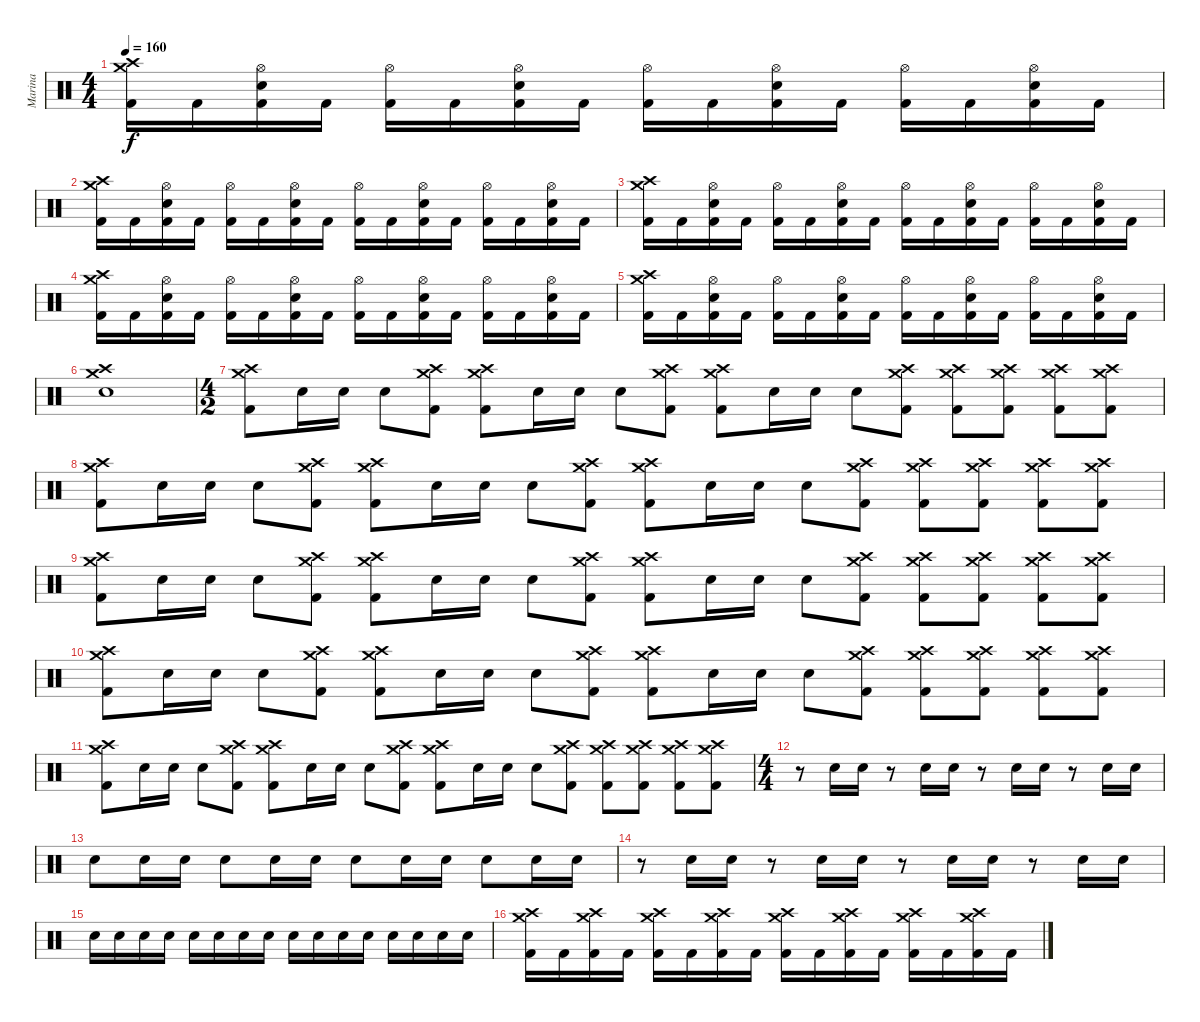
\track ("Marina" "Marina") {instrument percussion}
\staff {score}
\articulation defaults
\ts (4 4)
\tempo 160
\clef neutral
\ks c
("Kick (hit) 2" "Crash high (hit)" "Crash medium (hit)").16{dy f} "Kick (hit) 2".16 ("Kick (hit) 2" "Electric Snare (hit)" "Hi-Hat (open)").16 "Kick (hit) 2".16 ("Kick (hit) 2" "Hi-Hat (open)").16 "Kick (hit) 2".16 ("Kick (hit) 2" "Electric Snare (hit)" "Hi-Hat (open)").16 "Kick (hit) 2".16 ("Kick (hit) 2" "Hi-Hat (open)").16 "Kick (hit) 2".16 ("Kick (hit) 2" "Electric Snare (hit)" "Hi-Hat (open)").16 "Kick (hit) 2".16 ("Kick (hit) 2" "Hi-Hat (open)").16 "Kick (hit) 2".16 ("Kick (hit) 2" "Electric Snare (hit)" "Hi-Hat (open)").16 "Kick (hit) 2".16 |
("Kick (hit) 2" "Crash high (hit)" "Crash medium (hit)").16 "Kick (hit) 2".16 ("Kick (hit) 2" "Electric Snare (hit)" "Hi-Hat (open)").16 "Kick (hit) 2".16 ("Kick (hit) 2" "Hi-Hat (open)").16 "Kick (hit) 2".16 ("Kick (hit) 2" "Electric Snare (hit)" "Hi-Hat (open)").16 "Kick (hit) 2".16 ("Kick (hit) 2" "Hi-Hat (open)").16 "Kick (hit) 2".16 ("Kick (hit) 2" "Electric Snare (hit)" "Hi-Hat (open)").16 "Kick (hit) 2".16 ("Kick (hit) 2" "Hi-Hat (open)").16 "Kick (hit) 2".16 ("Kick (hit) 2" "Electric Snare (hit)" "Hi-Hat (open)").16 "Kick (hit) 2".16 |
("Kick (hit) 2" "Crash high (hit)" "Crash medium (hit)").16 "Kick (hit) 2".16 ("Kick (hit) 2" "Electric Snare (hit)" "Hi-Hat (open)").16 "Kick (hit) 2".16 ("Kick (hit) 2" "Hi-Hat (open)").16 "Kick (hit) 2".16 ("Kick (hit) 2" "Electric Snare (hit)" "Hi-Hat (open)").16 "Kick (hit) 2".16 ("Kick (hit) 2" "Hi-Hat (open)").16 "Kick (hit) 2".16 ("Kick (hit) 2" "Electric Snare (hit)" "Hi-Hat (open)").16 "Kick (hit) 2".16 ("Kick (hit) 2" "Hi-Hat (open)").16 "Kick (hit) 2".16 ("Kick (hit) 2" "Electric Snare (hit)" "Hi-Hat (open)").16 "Kick (hit) 2".16 |
("Kick (hit) 2" "Crash high (hit)" "Crash medium (hit)").16 "Kick (hit) 2".16 ("Kick (hit) 2" "Electric Snare (hit)" "Hi-Hat (open)").16 "Kick (hit) 2".16 ("Kick (hit) 2" "Hi-Hat (open)").16 "Kick (hit) 2".16 ("Kick (hit) 2" "Electric Snare (hit)" "Hi-Hat (open)").16 "Kick (hit) 2".16 ("Kick (hit) 2" "Hi-Hat (open)").16 "Kick (hit) 2".16 ("Kick (hit) 2" "Electric Snare (hit)" "Hi-Hat (open)").16 "Kick (hit) 2".16 ("Kick (hit) 2" "Hi-Hat (open)").16 "Kick (hit) 2".16 ("Kick (hit) 2" "Electric Snare (hit)" "Hi-Hat (open)").16 "Kick (hit) 2".16 |
("Kick (hit) 2" "Crash high (hit)" "Crash medium (hit)").16 "Kick (hit) 2".16 ("Kick (hit) 2" "Electric Snare (hit)" "Hi-Hat (open)").16 "Kick (hit) 2".16 ("Kick (hit) 2" "Hi-Hat (open)").16 "Kick (hit) 2".16 ("Kick (hit) 2" "Electric Snare (hit)" "Hi-Hat (open)").16 "Kick (hit) 2".16 ("Kick (hit) 2" "Hi-Hat (open)").16 "Kick (hit) 2".16 ("Kick (hit) 2" "Electric Snare (hit)" "Hi-Hat (open)").16 "Kick (hit) 2".16 ("Kick (hit) 2" "Hi-Hat (open)").16 "Kick (hit) 2".16 ("Kick (hit) 2" "Electric Snare (hit)" "Hi-Hat (open)").16 "Kick (hit) 2".16 |
("Electric Snare (hit)" "Crash high (hit)" "Crash medium (hit)").1 |
\ts (4 2)
("Kick (hit) 2" "Crash high (hit)" "Crash medium (hit)").8 "Electric Snare (hit)".16 "Electric Snare (hit)".16 "Electric Snare (hit)".8 ("Kick (hit) 2" "Crash high (hit)" "Crash medium (hit)").8 ("Kick (hit) 2" "Crash high (hit)" "Crash medium (hit)").8 "Electric Snare (hit)".16 "Electric Snare (hit)".16 "Electric Snare (hit)".8 ("Kick (hit) 2" "Crash high (hit)" "Crash medium (hit)").8 ("Kick (hit) 2" "Crash high (hit)" "Crash medium (hit)").8 "Electric Snare (hit)".16 "Electric Snare (hit)".16 "Electric Snare (hit)".8 ("Kick (hit) 2" "Crash high (hit)" "Crash medium (hit)").8 ("Kick (hit) 2" "Crash high (hit)" "Crash medium (hit)").8 ("Kick (hit) 2" "Crash high (hit)" "Crash medium (hit)").8 ("Kick (hit) 2" "Crash high (hit)" "Crash medium (hit)").8 ("Kick (hit) 2" "Crash high (hit)" "Crash medium (hit)").8 |
("Kick (hit) 2" "Crash high (hit)" "Crash medium (hit)").8 "Electric Snare (hit)".16 "Electric Snare (hit)".16 "Electric Snare (hit)".8 ("Kick (hit) 2" "Crash high (hit)" "Crash medium (hit)").8 ("Kick (hit) 2" "Crash high (hit)" "Crash medium (hit)").8 "Electric Snare (hit)".16 "Electric Snare (hit)".16 "Electric Snare (hit)".8 ("Kick (hit) 2" "Crash high (hit)" "Crash medium (hit)").8 ("Kick (hit) 2" "Crash high (hit)" "Crash medium (hit)").8 "Electric Snare (hit)".16 "Electric Snare (hit)".16 "Electric Snare (hit)".8 ("Kick (hit) 2" "Crash high (hit)" "Crash medium (hit)").8 ("Kick (hit) 2" "Crash high (hit)" "Crash medium (hit)").8 ("Kick (hit) 2" "Crash high (hit)" "Crash medium (hit)").8 ("Kick (hit) 2" "Crash high (hit)" "Crash medium (hit)").8 ("Kick (hit) 2" "Crash high (hit)" "Crash medium (hit)").8 |
("Kick (hit) 2" "Crash high (hit)" "Crash medium (hit)").8 "Electric Snare (hit)".16 "Electric Snare (hit)".16 "Electric Snare (hit)".8 ("Kick (hit) 2" "Crash high (hit)" "Crash medium (hit)").8 ("Kick (hit) 2" "Crash high (hit)" "Crash medium (hit)").8 "Electric Snare (hit)".16 "Electric Snare (hit)".16 "Electric Snare (hit)".8 ("Kick (hit) 2" "Crash high (hit)" "Crash medium (hit)").8 ("Kick (hit) 2" "Crash high (hit)" "Crash medium (hit)").8 "Electric Snare (hit)".16 "Electric Snare (hit)".16 "Electric Snare (hit)".8 ("Kick (hit) 2" "Crash high (hit)" "Crash medium (hit)").8 ("Kick (hit) 2" "Crash high (hit)" "Crash medium (hit)").8 ("Kick (hit) 2" "Crash high (hit)" "Crash medium (hit)").8 ("Kick (hit) 2" "Crash high (hit)" "Crash medium (hit)").8 ("Kick (hit) 2" "Crash high (hit)" "Crash medium (hit)").8 |
("Kick (hit) 2" "Crash high (hit)" "Crash medium (hit)").8 "Electric Snare (hit)".16 "Electric Snare (hit)".16 "Electric Snare (hit)".8 ("Kick (hit) 2" "Crash high (hit)" "Crash medium (hit)").8 ("Kick (hit) 2" "Crash high (hit)" "Crash medium (hit)").8 "Electric Snare (hit)".16 "Electric Snare (hit)".16 "Electric Snare (hit)".8 ("Kick (hit) 2" "Crash high (hit)" "Crash medium (hit)").8 ("Kick (hit) 2" "Crash high (hit)" "Crash medium (hit)").8 "Electric Snare (hit)".16 "Electric Snare (hit)".16 "Electric Snare (hit)".8 ("Kick (hit) 2" "Crash high (hit)" "Crash medium (hit)").8 ("Kick (hit) 2" "Crash high (hit)" "Crash medium (hit)").8 ("Kick (hit) 2" "Crash high (hit)" "Crash medium (hit)").8 ("Kick (hit) 2" "Crash high (hit)" "Crash medium (hit)").8 ("Kick (hit) 2" "Crash high (hit)" "Crash medium (hit)").8 |
("Kick (hit) 2" "Crash high (hit)" "Crash medium (hit)").8 "Electric Snare (hit)".16 "Electric Snare (hit)".16 "Electric Snare (hit)".8 ("Kick (hit) 2" "Crash high (hit)" "Crash medium (hit)").8 ("Kick (hit) 2" "Crash high (hit)" "Crash medium (hit)").8 "Electric Snare (hit)".16 "Electric Snare (hit)".16 "Electric Snare (hit)".8 ("Kick (hit) 2" "Crash high (hit)" "Crash medium (hit)").8 ("Kick (hit) 2" "Crash high (hit)" "Crash medium (hit)").8 "Electric Snare (hit)".16 "Electric Snare (hit)".16 "Electric Snare (hit)".8 ("Kick (hit) 2" "Crash high (hit)" "Crash medium (hit)").8 ("Kick (hit) 2" "Crash high (hit)" "Crash medium (hit)").8 ("Kick (hit) 2" "Crash high (hit)" "Crash medium (hit)").8 ("Kick (hit) 2" "Crash high (hit)" "Crash medium (hit)").8 ("Kick (hit) 2" "Crash high (hit)" "Crash medium (hit)").8 |
\ts (4 4)
r.8 "Electric Snare (hit)".16 "Electric Snare (hit)".16 r.8 "Electric Snare (hit)".16 "Electric Snare (hit)".16 r.8 "Electric Snare (hit)".16 "Electric Snare (hit)".16 r.8 "Electric Snare (hit)".16 "Electric Snare (hit)".16 |
"Electric Snare (hit)".8 "Electric Snare (hit)".16 "Electric Snare (hit)".16 "Electric Snare (hit)".8 "Electric Snare (hit)".16 "Electric Snare (hit)".16 "Electric Snare (hit)".8 "Electric Snare (hit)".16 "Electric Snare (hit)".16 "Electric Snare (hit)".8 "Electric Snare (hit)".16 "Electric Snare (hit)".16 |
r.8 "Electric Snare (hit)".16 "Electric Snare (hit)".16 r.8 "Electric Snare (hit)".16 "Electric Snare (hit)".16 r.8 "Electric Snare (hit)".16 "Electric Snare (hit)".16 r.8 "Electric Snare (hit)".16 "Electric Snare (hit)".16 |
"Electric Snare (hit)".16 "Electric Snare (hit)".16 "Electric Snare (hit)".16 "Electric Snare (hit)".16 "Electric Snare (hit)".16 "Electric Snare (hit)".16 "Electric Snare (hit)".16 "Electric Snare (hit)".16 "Electric Snare (hit)".16 "Electric Snare (hit)".16 "Electric Snare (hit)".16 "Electric Snare (hit)".16 "Electric Snare (hit)".16 "Electric Snare (hit)".16 "Electric Snare (hit)".16 "Electric Snare (hit)".16 |
("Kick (hit) 2" "Crash high (hit)" "Crash medium (hit)").16 "Kick (hit) 2".16 ("Kick (hit) 2" "Crash high (hit)" "Crash medium (hit)").16 "Kick (hit) 2".16 ("Kick (hit) 2" "Crash high (hit)" "Crash medium (hit)").16 "Kick (hit) 2".16 ("Kick (hit) 2" "Crash high (hit)" "Crash medium (hit)").16 "Kick (hit) 2".16 ("Kick (hit) 2" "Crash high (hit)" "Crash medium (hit)").16 "Kick (hit) 2".16 ("Kick (hit) 2" "Crash high (hit)" "Crash medium (hit)").16 "Kick (hit) 2".16 ("Kick (hit) 2" "Crash high (hit)" "Crash medium (hit)").16 "Kick (hit) 2".16 ("Kick (hit) 2" "Crash high (hit)" "Crash medium (hit)").16 "Kick (hit) 2".16
